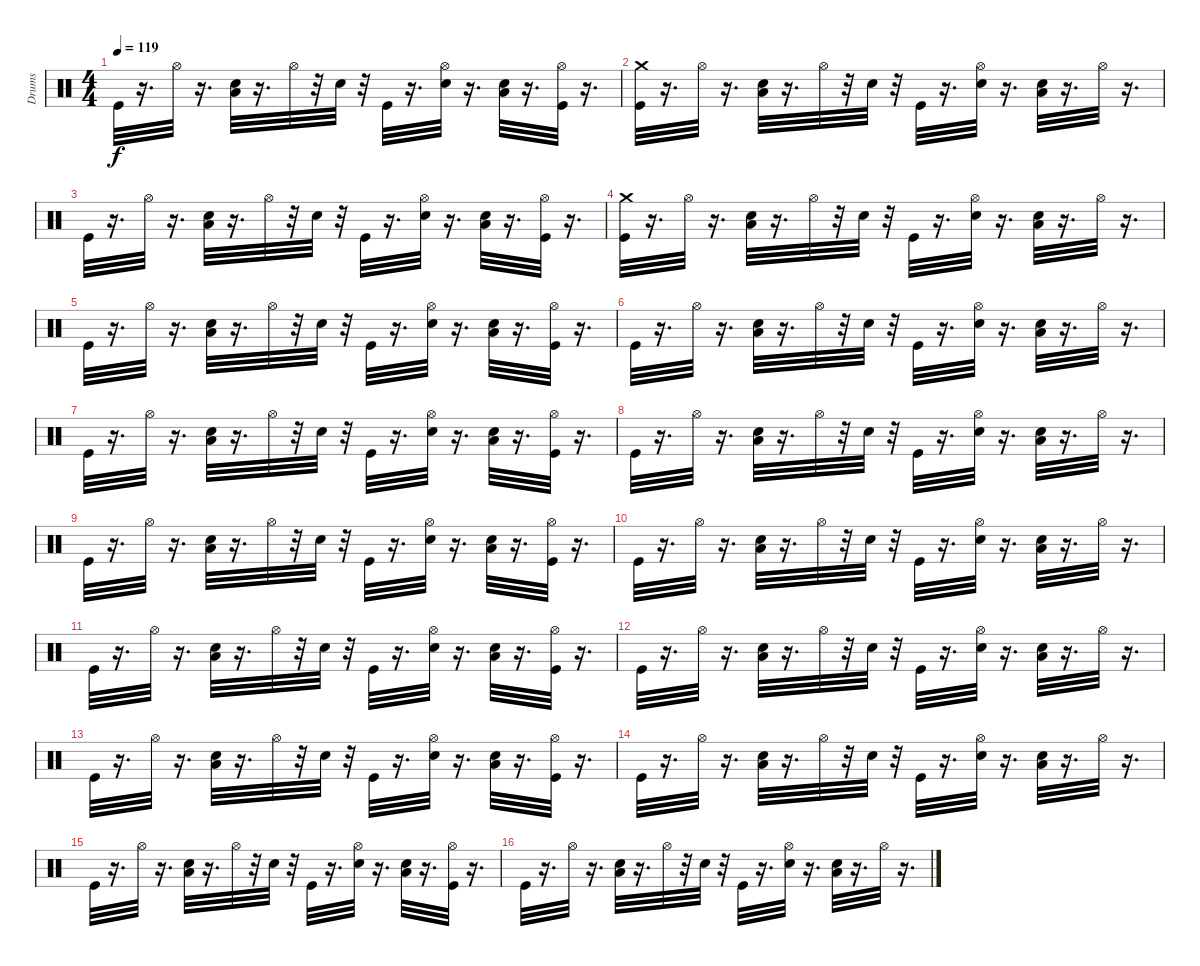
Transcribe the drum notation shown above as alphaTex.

\track ("Drums" "Drums") {instrument percussion}
\staff {score}
\articulation defaults
\ts (4 4)
\tempo 119
\clef neutral
\ks c "Kick (hit)".32{dy f}
r.16{d} "Hi-Hat (open)".32 r.16{d} ("Low Floor Tom (hit)" "Hand Clap (hit)").32 r.16{d} "Hi-Hat (open)".32 r.32 "Hand Clap (hit)".32 r.32 "Kick (hit)".32 r.16{d} ("Hi-Hat (open)" "Hand Clap (hit)").32 r.16{d} ("Low Floor Tom (hit)" "Hand Clap (hit)").32 r.16{d} ("Kick (hit)" "Hi-Hat (open)").32 r.16{d} |
("Crash medium (hit)" "Kick (hit)").32 r.16{d} "Hi-Hat (open)".32 r.16{d} ("Low Floor Tom (hit)" "Hand Clap (hit)").32 r.16{d} "Hi-Hat (open)".32 r.32 "Hand Clap (hit)".32 r.32 "Kick (hit)".32 r.16{d} ("Hi-Hat (open)" "Hand Clap (hit)").32 r.16{d} ("Low Floor Tom (hit)" "Hand Clap (hit)").32 r.16{d} "Hi-Hat (open)".32 r.16{d} |
"Kick (hit)".32 r.16{d} "Hi-Hat (open)".32 r.16{d} ("Low Floor Tom (hit)" "Hand Clap (hit)").32 r.16{d} "Hi-Hat (open)".32 r.32 "Hand Clap (hit)".32 r.32 "Kick (hit)".32 r.16{d} ("Hi-Hat (open)" "Hand Clap (hit)").32 r.16{d} ("Low Floor Tom (hit)" "Hand Clap (hit)").32 r.16{d} ("Kick (hit)" "Hi-Hat (open)").32 r.16{d} |
("Crash medium (hit)" "Kick (hit)").32 r.16{d} "Hi-Hat (open)".32 r.16{d} ("Low Floor Tom (hit)" "Hand Clap (hit)").32 r.16{d} "Hi-Hat (open)".32 r.32 "Hand Clap (hit)".32 r.32 "Kick (hit)".32 r.16{d} ("Hi-Hat (open)" "Hand Clap (hit)").32 r.16{d} ("Low Floor Tom (hit)" "Hand Clap (hit)").32 r.16{d} "Hi-Hat (open)".32 r.16{d} |
"Kick (hit)".32 r.16{d} "Hi-Hat (open)".32 r.16{d} ("Low Floor Tom (hit)" "Hand Clap (hit)").32 r.16{d} "Hi-Hat (open)".32 r.32 "Hand Clap (hit)".32 r.32 "Kick (hit)".32 r.16{d} ("Hi-Hat (open)" "Hand Clap (hit)").32 r.16{d} ("Low Floor Tom (hit)" "Hand Clap (hit)").32 r.16{d} ("Kick (hit)" "Hi-Hat (open)").32 r.16{d} |
"Kick (hit)".32 r.16{d} "Hi-Hat (open)".32 r.16{d} ("Low Floor Tom (hit)" "Hand Clap (hit)").32 r.16{d} "Hi-Hat (open)".32 r.32 "Hand Clap (hit)".32 r.32 "Kick (hit)".32 r.16{d} ("Hi-Hat (open)" "Hand Clap (hit)").32 r.16{d} ("Low Floor Tom (hit)" "Hand Clap (hit)").32 r.16{d} "Hi-Hat (open)".32 r.16{d} |
"Kick (hit)".32 r.16{d} "Hi-Hat (open)".32 r.16{d} ("Low Floor Tom (hit)" "Hand Clap (hit)").32 r.16{d} "Hi-Hat (open)".32 r.32 "Hand Clap (hit)".32 r.32 "Kick (hit)".32 r.16{d} ("Hi-Hat (open)" "Hand Clap (hit)").32 r.16{d} ("Low Floor Tom (hit)" "Hand Clap (hit)").32 r.16{d} ("Kick (hit)" "Hi-Hat (open)").32 r.16{d} |
"Kick (hit)".32 r.16{d} "Hi-Hat (open)".32 r.16{d} ("Low Floor Tom (hit)" "Hand Clap (hit)").32 r.16{d} "Hi-Hat (open)".32 r.32 "Hand Clap (hit)".32 r.32 "Kick (hit)".32 r.16{d} ("Hi-Hat (open)" "Hand Clap (hit)").32 r.16{d} ("Low Floor Tom (hit)" "Hand Clap (hit)").32 r.16{d} "Hi-Hat (open)".32 r.16{d} |
"Kick (hit)".32 r.16{d} "Hi-Hat (open)".32 r.16{d} ("Low Floor Tom (hit)" "Hand Clap (hit)").32 r.16{d} "Hi-Hat (open)".32 r.32 "Hand Clap (hit)".32 r.32 "Kick (hit)".32 r.16{d} ("Hi-Hat (open)" "Hand Clap (hit)").32 r.16{d} ("Low Floor Tom (hit)" "Hand Clap (hit)").32 r.16{d} ("Kick (hit)" "Hi-Hat (open)").32 r.16{d} |
"Kick (hit)".32 r.16{d} "Hi-Hat (open)".32 r.16{d} ("Low Floor Tom (hit)" "Hand Clap (hit)").32 r.16{d} "Hi-Hat (open)".32 r.32 "Hand Clap (hit)".32 r.32 "Kick (hit)".32 r.16{d} ("Hi-Hat (open)" "Hand Clap (hit)").32 r.16{d} ("Low Floor Tom (hit)" "Hand Clap (hit)").32 r.16{d} "Hi-Hat (open)".32 r.16{d} |
"Kick (hit)".32 r.16{d} "Hi-Hat (open)".32 r.16{d} ("Low Floor Tom (hit)" "Hand Clap (hit)").32 r.16{d} "Hi-Hat (open)".32 r.32 "Hand Clap (hit)".32 r.32 "Kick (hit)".32 r.16{d} ("Hi-Hat (open)" "Hand Clap (hit)").32 r.16{d} ("Low Floor Tom (hit)" "Hand Clap (hit)").32 r.16{d} ("Kick (hit)" "Hi-Hat (open)").32 r.16{d} |
"Kick (hit)".32 r.16{d} "Hi-Hat (open)".32 r.16{d} ("Low Floor Tom (hit)" "Hand Clap (hit)").32 r.16{d} "Hi-Hat (open)".32 r.32 "Hand Clap (hit)".32 r.32 "Kick (hit)".32 r.16{d} ("Hi-Hat (open)" "Hand Clap (hit)").32 r.16{d} ("Low Floor Tom (hit)" "Hand Clap (hit)").32 r.16{d} "Hi-Hat (open)".32 r.16{d} |
"Kick (hit)".32 r.16{d} "Hi-Hat (open)".32 r.16{d} ("Low Floor Tom (hit)" "Hand Clap (hit)").32 r.16{d} "Hi-Hat (open)".32 r.32 "Hand Clap (hit)".32 r.32 "Kick (hit)".32 r.16{d} ("Hi-Hat (open)" "Hand Clap (hit)").32 r.16{d} ("Low Floor Tom (hit)" "Hand Clap (hit)").32 r.16{d} ("Kick (hit)" "Hi-Hat (open)").32 r.16{d} |
"Kick (hit)".32 r.16{d} "Hi-Hat (open)".32 r.16{d} ("Low Floor Tom (hit)" "Hand Clap (hit)").32 r.16{d} "Hi-Hat (open)".32 r.32 "Hand Clap (hit)".32 r.32 "Kick (hit)".32 r.16{d} ("Hi-Hat (open)" "Hand Clap (hit)").32 r.16{d} ("Low Floor Tom (hit)" "Hand Clap (hit)").32 r.16{d} "Hi-Hat (open)".32 r.16{d} |
"Kick (hit)".32 r.16{d} "Hi-Hat (open)".32 r.16{d} ("Low Floor Tom (hit)" "Hand Clap (hit)").32 r.16{d} "Hi-Hat (open)".32 r.32 "Hand Clap (hit)".32 r.32 "Kick (hit)".32 r.16{d} ("Hi-Hat (open)" "Hand Clap (hit)").32 r.16{d} ("Low Floor Tom (hit)" "Hand Clap (hit)").32 r.16{d} ("Kick (hit)" "Hi-Hat (open)").32 r.16{d} |
"Kick (hit)".32 r.16{d} "Hi-Hat (open)".32 r.16{d} ("Low Floor Tom (hit)" "Hand Clap (hit)").32 r.16{d} "Hi-Hat (open)".32 r.32 "Hand Clap (hit)".32 r.32 "Kick (hit)".32 r.16{d} ("Hi-Hat (open)" "Hand Clap (hit)").32 r.16{d} ("Low Floor Tom (hit)" "Hand Clap (hit)").32 r.16{d} "Hi-Hat (open)".32 r.16{d}
